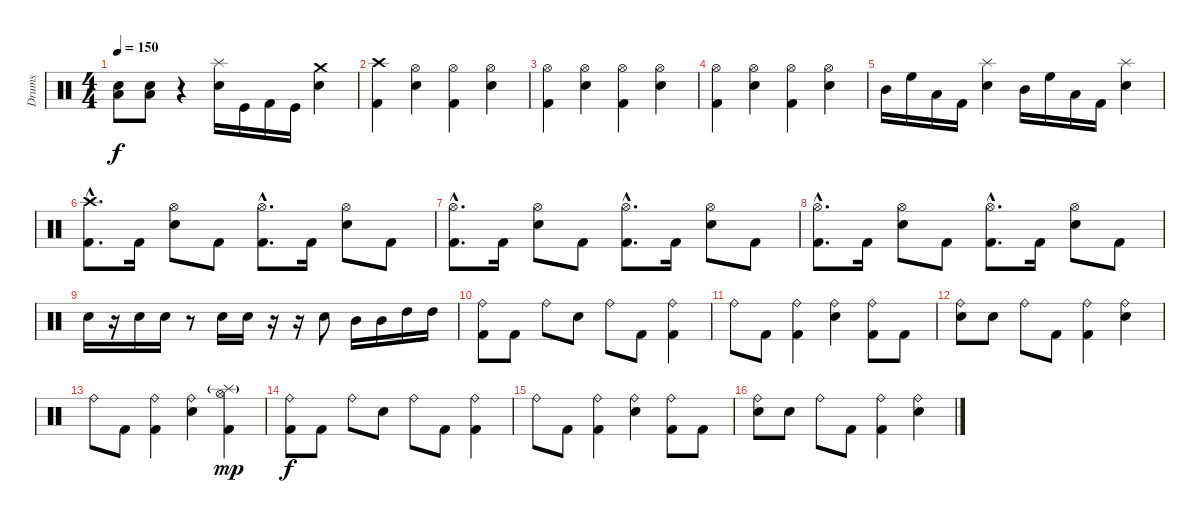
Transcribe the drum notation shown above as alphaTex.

\track ("Drums" "Drums") {instrument percussion}
\staff {score}
\articulation defaults
\ts (4 4)
\tempo 150
\clef neutral
\ks c
("Electric Snare (hit)" "Low Floor Tom (hit)").8{dy f} ("Electric Snare (hit)" "Low Floor Tom (hit)").8 r.4 ("Splash (hit)" "Electric Snare (hit)").16 "Kick (hit)".16 "Kick (hit) 2".16 "Kick (hit)".16 ("Crash medium (hit)" "Electric Snare (hit)").4 |
("Crash high (hit)" "Kick (hit) 2").4 ("Hi-Hat (open)" "Electric Snare (hit)").4 ("Hi-Hat (open)" "Kick (hit) 2").4 ("Hi-Hat (open)" "Electric Snare (hit)").4 |
("Hi-Hat (open)" "Kick (hit) 2").4 ("Hi-Hat (open)" "Electric Snare (hit)").4 ("Hi-Hat (open)" "Kick (hit) 2").4 ("Hi-Hat (open)" "Electric Snare (hit)").4 |
("Hi-Hat (open)" "Kick (hit) 2").4 ("Hi-Hat (open)" "Electric Snare (hit)").4 ("Hi-Hat (open)" "Kick (hit) 2").4 ("Hi-Hat (open)" "Electric Snare (hit)").4 |
"Mid Tom (hit)".16 "High Floor Tom (hit)".16 "Low Floor Tom (hit)".16 "Kick (hit) 2".16 ("Splash (hit)" "Electric Snare (hit)").4 "Mid Tom (hit)".16 "High Floor Tom (hit)".16 "Low Floor Tom (hit)".16 "Kick (hit) 2".16 ("Splash (hit)" "Electric Snare (hit)").4 |
("Crash high (hit)"{hac} "Kick (hit) 2"{hac}).8{d} "Kick (hit) 2".16 ("Hi-Hat (open)" "Electric Snare (hit)").8 "Kick (hit) 2".8 ("Hi-Hat (open)"{hac} "Kick (hit) 2"{hac}).8{d} "Kick (hit) 2".16 ("Hi-Hat (open)" "Electric Snare (hit)").8 "Kick (hit) 2".8 |
("Hi-Hat (open)"{hac} "Kick (hit) 2"{hac}).8{d} "Kick (hit) 2".16 ("Hi-Hat (open)" "Electric Snare (hit)").8 "Kick (hit) 2".8 ("Hi-Hat (open)"{hac} "Kick (hit) 2"{hac}).8{d} "Kick (hit) 2".16 ("Hi-Hat (open)" "Electric Snare (hit)").8 "Kick (hit) 2".8 |
("Hi-Hat (open)"{hac} "Kick (hit) 2"{hac}).8{d} "Kick (hit) 2".16 ("Hi-Hat (open)" "Electric Snare (hit)").8 "Kick (hit) 2".8 ("Hi-Hat (open)"{hac} "Kick (hit) 2"{hac}).8{d} "Kick (hit) 2".16 ("Hi-Hat (open)" "Electric Snare (hit)").8 "Kick (hit) 2".8 |
"Electric Snare (hit)".16 r.16 "Electric Snare (hit)".16 "Electric Snare (hit)".16 r.8 "Electric Snare (hit)".16 "Electric Snare (hit)".16 r.16 r.16 "Electric Snare (hit)".8 "Mid Tom (hit)".16 "Mid Tom (hit)".16 "High Tom (hit)".16 "High Tom (hit)".16 |
("Ride (bell)" "Kick (hit) 2").8 "Kick (hit) 2".8 "Ride (bell)".8 "Electric Snare (hit)".8 "Ride (bell)".8 "Kick (hit) 2".8 ("Ride (bell)" "Kick (hit) 2").4 |
"Ride (bell)".8 "Kick (hit) 2".8 ("Ride (bell)" "Kick (hit) 2").4 ("Ride (bell)" "Electric Snare (hit)").4 ("Ride (bell)" "Kick (hit) 2").8 "Kick (hit) 2".8 |
("Ride (bell)" "Electric Snare (hit)").8 "Electric Snare (hit)".8 "Ride (bell)".8 "Kick (hit) 2".8 ("Ride (bell)" "Kick (hit) 2").4 ("Ride (bell)" "Electric Snare (hit)").4 |
"Ride (bell)".8 "Kick (hit) 2".8 ("Ride (bell)" "Kick (hit) 2").4 ("Ride (bell)" "Electric Snare (hit)").4 ("Hi-Hat (open)" "Splash (hit)"{g} "Kick (hit) 2").4{dy mp} |
("Ride (bell)" "Kick (hit) 2").8{dy f} "Kick (hit) 2".8 "Ride (bell)".8 "Electric Snare (hit)".8 "Ride (bell)".8 "Kick (hit) 2".8 ("Ride (bell)" "Kick (hit) 2").4 |
"Ride (bell)".8 "Kick (hit) 2".8 ("Ride (bell)" "Kick (hit) 2").4 ("Ride (bell)" "Electric Snare (hit)").4 ("Ride (bell)" "Kick (hit) 2").8 "Kick (hit) 2".8 |
("Ride (bell)" "Electric Snare (hit)").8 "Electric Snare (hit)".8 "Ride (bell)".8 "Kick (hit) 2".8 ("Ride (bell)" "Kick (hit) 2").4 ("Ride (bell)" "Electric Snare (hit)").4
